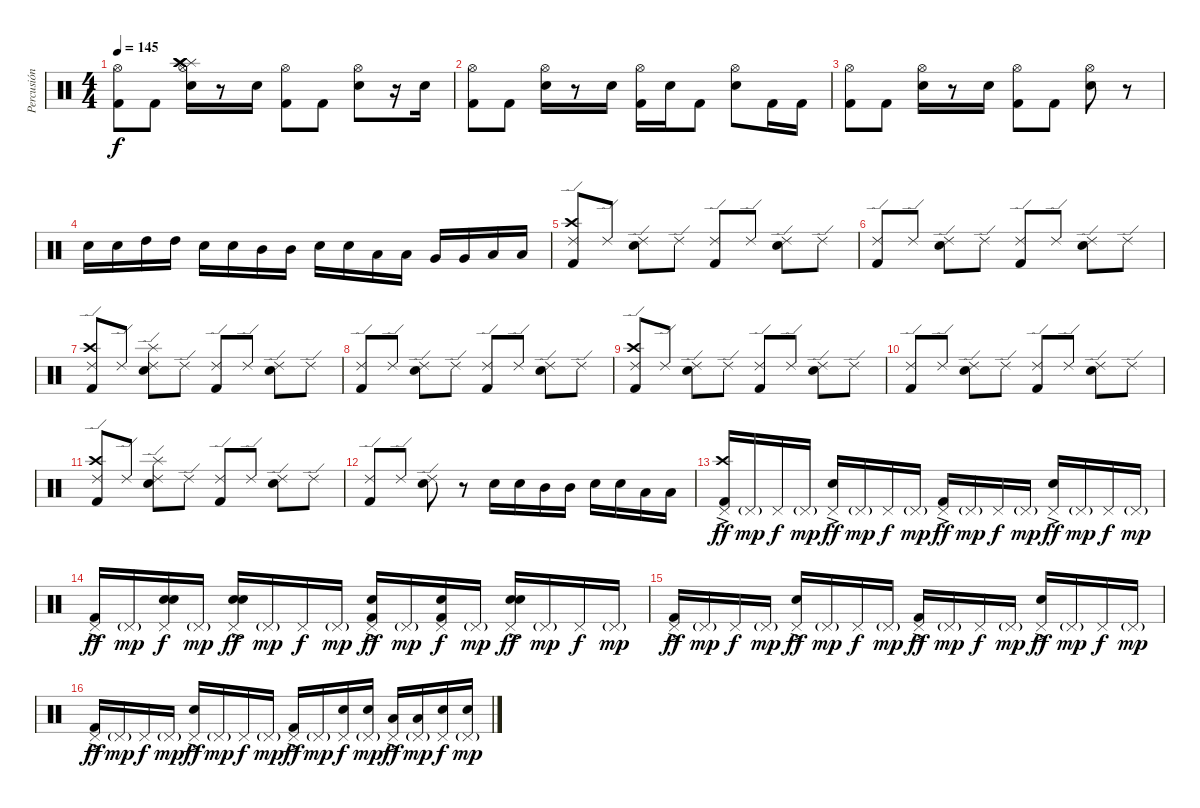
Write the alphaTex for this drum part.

\track ("Percusión" "Percusión") {instrument percussion}
\staff {score}
\articulation defaults
\ts (4 4)
\tempo 145
\clef neutral
\ks c
("Hi-Hat (open)" "Kick (hit) 2").8{dy f} "Kick (hit) 2".8 ("Hi-Hat (open)" "Electric Snare (hit)" "Splash (hit)" "Crash high (hit)" "Crash high (hit)").16 r.8 "Electric Snare (hit)".16 ("Hi-Hat (open)" "Kick (hit) 2").8 "Kick (hit) 2".8 ("Hi-Hat (open)" "Electric Snare (hit)").8 r.16 "Electric Snare (hit)".16 |
("Hi-Hat (open)" "Kick (hit) 2").8 "Kick (hit) 2".8 ("Hi-Hat (open)" "Electric Snare (hit)").16 r.8 "Electric Snare (hit)".16 ("Hi-Hat (open)" "Kick (hit) 2").16 "Electric Snare (hit)".16 "Kick (hit) 2".8 ("Hi-Hat (open)" "Electric Snare (hit)").8 "Kick (hit) 2".16 "Kick (hit) 2".16 |
("Hi-Hat (open)" "Kick (hit) 2").8 "Kick (hit) 2".8 ("Hi-Hat (open)" "Electric Snare (hit)").16 r.8 "Electric Snare (hit)".16 ("Hi-Hat (open)" "Kick (hit) 2").8 "Kick (hit) 2".8 ("Hi-Hat (open)" "Electric Snare (hit)").8 r.8 |
"Electric Snare (hit)".16 "Electric Snare (hit)".16 "High Tom (hit)".16 "High Tom (hit)".16 "Electric Snare (hit)".16 "Electric Snare (hit)".16 "Mid Tom (hit)".16 "Mid Tom (hit)".16 "Electric Snare (hit)".16 "Electric Snare (hit)".16 "Low Tom (hit)".16 "Low Tom (hit)".16 "Very Low Tom (hit)".16 "Very Low Tom (hit)".16 "Low Floor Tom (hit)".16 "Low Floor Tom (hit)".16 |
("Kick (hit) 2" "Crash high (hit)" "Ride (edge) 2").8 "Ride (edge) 2".8 ("Electric Snare (hit)" "Ride (edge) 2").8 "Ride (edge) 2".8 ("Kick (hit) 2" "Ride (edge) 2").8 "Ride (edge) 2".8 ("Electric Snare (hit)" "Ride (edge) 2").8 "Ride (edge) 2".8 |
("Kick (hit) 2" "Ride (edge) 2").8 "Ride (edge) 2".8 ("Electric Snare (hit)" "Ride (edge) 2").8 "Ride (edge) 2".8 ("Kick (hit) 2" "Ride (edge) 2").8 "Ride (edge) 2".8 ("Electric Snare (hit)" "Ride (edge) 2").8 "Ride (edge) 2".8 |
("Kick (hit) 2" "Crash high (hit)" "Ride (edge) 2").8 "Ride (edge) 2".8 ("Splash (hit)" "Electric Snare (hit)" "Ride (edge) 2").8 "Ride (edge) 2".8 ("Kick (hit) 2" "Ride (edge) 2").8 "Ride (edge) 2".8 ("Electric Snare (hit)" "Ride (edge) 2").8 "Ride (edge) 2".8 |
("Kick (hit) 2" "Ride (edge) 2").8 "Ride (edge) 2".8 ("Electric Snare (hit)" "Ride (edge) 2").8 "Ride (edge) 2".8 ("Kick (hit) 2" "Ride (edge) 2").8 "Ride (edge) 2".8 ("Electric Snare (hit)" "Ride (edge) 2").8 "Ride (edge) 2".8 |
("Kick (hit) 2" "Crash high (hit)" "Ride (edge) 2").8 "Ride (edge) 2".8 ("Electric Snare (hit)" "Ride (edge) 2").8 "Ride (edge) 2".8 ("Kick (hit) 2" "Ride (edge) 2").8 "Ride (edge) 2".8 ("Electric Snare (hit)" "Ride (edge) 2").8 "Ride (edge) 2".8 |
("Kick (hit) 2" "Ride (edge) 2").8 "Ride (edge) 2".8 ("Electric Snare (hit)" "Ride (edge) 2").8 "Ride (edge) 2".8 ("Kick (hit) 2" "Ride (edge) 2").8 "Ride (edge) 2".8 ("Electric Snare (hit)" "Ride (edge) 2").8 "Ride (edge) 2".8 |
("Kick (hit) 2" "Crash high (hit)" "Ride (edge) 2").8 "Ride (edge) 2".8 ("Splash (hit)" "Electric Snare (hit)" "Ride (edge) 2").8 "Ride (edge) 2".8 ("Kick (hit) 2" "Ride (edge) 2").8 "Ride (edge) 2".8 ("Electric Snare (hit)" "Ride (edge) 2").8 "Ride (edge) 2".8 |
("Kick (hit) 2" "Ride (edge) 2").8 "Ride (edge) 2".8 ("Electric Snare (hit)" "Ride (edge) 2").8 r.8 "Electric Snare (hit)".16 "Electric Snare (hit)".16 "Mid Tom (hit)".16 "Mid Tom (hit)".16 "Electric Snare (hit)".16 "Electric Snare (hit)".16 "Low Tom (hit)".16 "Low Tom (hit)".16 |
("Pedal Hi-Hat (hit)"{ac} "Crash high (hit)" "Kick (hit) 2").16{dy ff} "Pedal Hi-Hat (hit)"{g}.16{dy mp} "Pedal Hi-Hat (hit)".16{dy f} "Pedal Hi-Hat (hit)"{g}.16{dy mp} ("Pedal Hi-Hat (hit)"{ac} "Electric Snare (hit)").16{dy ff} "Pedal Hi-Hat (hit)"{g}.16{dy mp} "Pedal Hi-Hat (hit)".16{dy f} "Pedal Hi-Hat (hit)"{g}.16{dy mp} ("Pedal Hi-Hat (hit)"{ac} "Kick (hit) 2").16{dy ff} "Pedal Hi-Hat (hit)"{g}.16{dy mp} "Pedal Hi-Hat (hit)".16{dy f} "Pedal Hi-Hat (hit)"{g}.16{dy mp} ("Pedal Hi-Hat (hit)"{ac} "Electric Snare (hit)").16{dy ff} "Pedal Hi-Hat (hit)"{g}.16{dy mp} "Pedal Hi-Hat (hit)".16{dy f} "Pedal Hi-Hat (hit)"{g}.16{dy mp} |
("Pedal Hi-Hat (hit)"{ac} "Kick (hit) 2").16{dy ff} "Pedal Hi-Hat (hit)"{g}.16{dy mp} ("Pedal Hi-Hat (hit)" "Electric Snare (hit)" "Hand Clap (hit)").16{dy f} "Pedal Hi-Hat (hit)"{g}.16{dy mp} ("Pedal Hi-Hat (hit)"{ac} "Electric Snare (hit)" "Hand Clap (hit)").16{dy ff} "Pedal Hi-Hat (hit)"{g}.16{dy mp} "Pedal Hi-Hat (hit)".16{dy f} "Pedal Hi-Hat (hit)"{g}.16{dy mp} ("Pedal Hi-Hat (hit)"{ac} "Kick (hit) 2" "Hand Clap (hit)").16{dy ff} "Pedal Hi-Hat (hit)"{g}.16{dy mp} ("Pedal Hi-Hat (hit)" "Kick (hit) 2" "Hand Clap (hit)").16{dy f} "Pedal Hi-Hat (hit)"{g}.16{dy mp} ("Pedal Hi-Hat (hit)"{ac} "Electric Snare (hit)" "Hand Clap (hit)").16{dy ff} "Pedal Hi-Hat (hit)"{g}.16{dy mp} "Pedal Hi-Hat (hit)".16{dy f} "Pedal Hi-Hat (hit)"{g}.16{dy mp} |
("Pedal Hi-Hat (hit)"{ac} "Kick (hit) 2").16{dy ff} "Pedal Hi-Hat (hit)"{g}.16{dy mp} "Pedal Hi-Hat (hit)".16{dy f} "Pedal Hi-Hat (hit)"{g}.16{dy mp} ("Pedal Hi-Hat (hit)"{ac} "Electric Snare (hit)").16{dy ff} "Pedal Hi-Hat (hit)"{g}.16{dy mp} "Pedal Hi-Hat (hit)".16{dy f} "Pedal Hi-Hat (hit)"{g}.16{dy mp} ("Pedal Hi-Hat (hit)"{ac} "Kick (hit) 2").16{dy ff} "Pedal Hi-Hat (hit)"{g}.16{dy mp} "Pedal Hi-Hat (hit)".16{dy f} "Pedal Hi-Hat (hit)"{g}.16{dy mp} ("Pedal Hi-Hat (hit)"{ac} "Electric Snare (hit)").16{dy ff} "Pedal Hi-Hat (hit)"{g}.16{dy mp} "Pedal Hi-Hat (hit)".16{dy f} "Pedal Hi-Hat (hit)"{g}.16{dy mp} |
("Pedal Hi-Hat (hit)"{ac} "Kick (hit) 2").16{dy ff} "Pedal Hi-Hat (hit)"{g}.16{dy mp} "Pedal Hi-Hat (hit)".16{dy f} "Pedal Hi-Hat (hit)"{g}.16{dy mp} ("Pedal Hi-Hat (hit)"{ac} "Electric Snare (hit)").16{dy ff} "Pedal Hi-Hat (hit)"{g}.16{dy mp} "Pedal Hi-Hat (hit)".16{dy f} "Pedal Hi-Hat (hit)"{g}.16{dy mp} ("Pedal Hi-Hat (hit)"{ac} "Kick (hit) 2").16{dy ff} "Pedal Hi-Hat (hit)"{g}.16{dy mp} ("Pedal Hi-Hat (hit)" "Electric Snare (hit)").16{dy f} ("Pedal Hi-Hat (hit)"{g} "Electric Snare (hit)").16{dy mp} ("Pedal Hi-Hat (hit)"{ac} "Low Tom (hit)").16{dy ff} ("Pedal Hi-Hat (hit)"{g} "Low Tom (hit)").16{dy mp} ("Pedal Hi-Hat (hit)" "Electric Snare (hit)").16{dy f} ("Pedal Hi-Hat (hit)"{g} "Electric Snare (hit)").16{dy mp}
